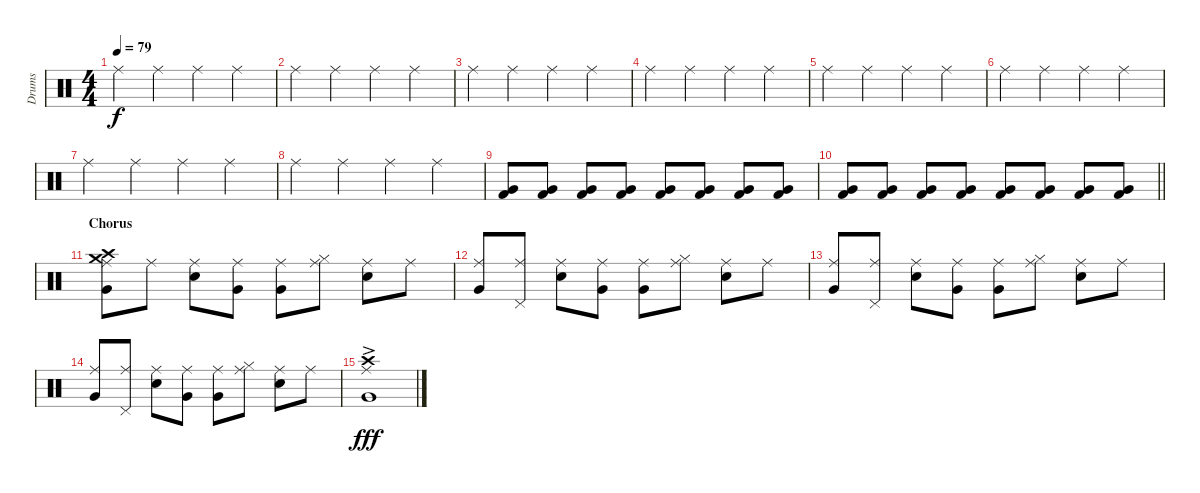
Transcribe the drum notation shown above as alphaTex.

\track ("Drums" "Drums") {instrument percussion}
\staff {score}
\articulation defaults
\ts (4 4)
\tempo 79
\clef neutral
\ks c "Ride (middle)".4{dy f} "Ride (middle)".4 "Ride (middle)".4 "Ride (middle)".4
|
"Ride (middle)".4 "Ride (middle)".4 "Ride (middle)".4 "Ride (middle)".4 |
"Ride (middle)".4 "Ride (middle)".4 "Ride (middle)".4 "Ride (middle)".4 |
"Ride (middle)".4 "Ride (middle)".4 "Ride (middle)".4 "Ride (middle)".4 |
"Ride (middle)".4 "Ride (middle)".4 "Ride (middle)".4 "Ride (middle)".4 |
"Ride (middle)".4 "Ride (middle)".4 "Ride (middle)".4 "Ride (middle)".4 |
"Ride (middle)".4 "Ride (middle)".4 "Ride (middle)".4 "Ride (middle)".4 |
"Ride (middle)".4 "Ride (middle)".4 "Ride (middle)".4 "Ride (middle)".4 |
("Very Low Tom (hit)" "Kick (hit) 2").8{volume 7} ("Very Low Tom (hit)" "Kick (hit) 2").8{volume 8} ("Very Low Tom (hit)" "Kick (hit) 2").8{volume 9} ("Very Low Tom (hit)" "Kick (hit) 2").8{volume 10} ("Very Low Tom (hit)" "Kick (hit) 2").8{volume 10} ("Very Low Tom (hit)" "Kick (hit) 2").8{volume 11} ("Very Low Tom (hit)" "Kick (hit) 2").8{volume 11} ("Very Low Tom (hit)" "Kick (hit) 2").8{volume 12} |
\barLineRight lightlight
("Very Low Tom (hit)" "Kick (hit) 2").8{volume 12} ("Very Low Tom (hit)" "Kick (hit) 2").8 ("Very Low Tom (hit)" "Kick (hit) 2").8 ("Very Low Tom (hit)" "Kick (hit) 2").8{volume 14} ("Very Low Tom (hit)" "Kick (hit) 2").8{volume 14} ("Very Low Tom (hit)" "Kick (hit) 2").8{volume 15} ("Very Low Tom (hit)" "Kick (hit) 2").8{volume 15} ("Very Low Tom (hit)" "Kick (hit) 2").8{volume 16} |
\section ("" "Chorus")
("Crash medium (hit)" "Crash high (hit)" "Very Low Tom (hit)" "Ride (middle)").8 "Ride (middle)".8 ("Snare (hit) 2" "Ride (middle)").8 ("Very Low Tom (hit)" "Ride (middle)").8 ("Very Low Tom (hit)" "Ride (middle)").8 ("Hi-Hat (closed)" "Ride (middle)").8 ("Snare (hit) 2" "Ride (middle)").8 "Ride (middle)".8 |
("Very Low Tom (hit)" "Ride (middle)").8 ("Pedal Hi-Hat (hit)" "Ride (middle)").8 ("Snare (hit) 2" "Ride (middle)").8 ("Very Low Tom (hit)" "Ride (middle)").8 ("Very Low Tom (hit)" "Ride (middle)").8 ("Hi-Hat (closed)" "Ride (middle)").8 ("Snare (hit) 2" "Ride (middle)").8 "Ride (middle)".8 |
("Very Low Tom (hit)" "Ride (middle)").8 ("Pedal Hi-Hat (hit)" "Ride (middle)").8 ("Snare (hit) 2" "Ride (middle)").8 ("Very Low Tom (hit)" "Ride (middle)").8 ("Very Low Tom (hit)" "Ride (middle)").8 ("Hi-Hat (closed)" "Ride (middle)").8 ("Snare (hit) 2" "Ride (middle)").8 "Ride (middle)".8 |
("Very Low Tom (hit)" "Ride (middle)").8 ("Pedal Hi-Hat (hit)" "Ride (middle)").8 ("Snare (hit) 2" "Ride (middle)").8 ("Very Low Tom (hit)" "Ride (middle)").8 ("Very Low Tom (hit)" "Ride (middle)").8 ("Hi-Hat (closed)" "Ride (middle)").8 ("Snare (hit) 2" "Ride (middle)").8 "Ride (middle)".8 |
("Crash high (hit)"{ac} "Very Low Tom (hit)" "Ride (middle)").1{dy fff}
